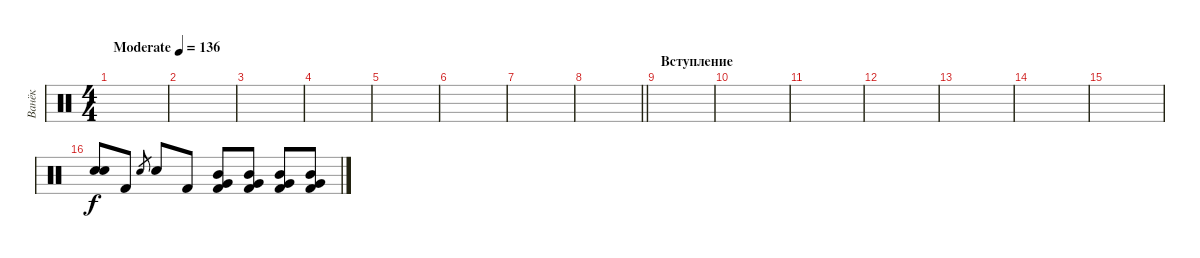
\track ("Ванёк" "Ванёк") {instrument percussion}
\staff {score}
\articulation defaults
\ts (4 4)
\tempo (136 "Moderate")
\clef neutral
\ks c
|
|
|
|
|
|
|
\barLineRight lightlight
|
\section ("" "Вступление")
|
|
|
|
|
|
|
("Snare (hit) 2" "Snare (hit) 2").8 "Kick (hit) 2".8 "Snare (hit) 2".8{gr} "Snare (hit) 2".8 "Kick (hit) 2".8 ("Very Low Tom (hit)" "Mid Tom (hit)" "Kick (hit) 2").8 ("Very Low Tom (hit)" "Mid Tom (hit)" "Kick (hit) 2").8 ("Very Low Tom (hit)" "Mid Tom (hit)" "Kick (hit) 2").8 ("Very Low Tom (hit)" "Mid Tom (hit)" "Kick (hit) 2").8
